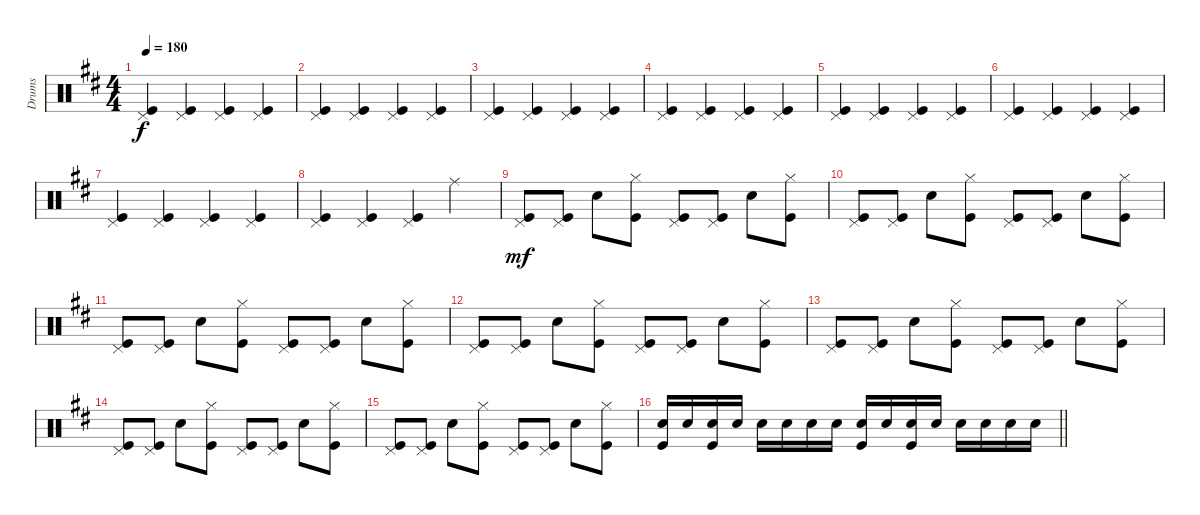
\track ("Drums" "Drums") {instrument percussion}
\staff {score}
\articulation defaults
\ts (4 4)
\tempo 180
\clef neutral
\ks d
("Kick (hit)" "Pedal Hi-Hat (hit)").4{dy f} ("Kick (hit)" "Pedal Hi-Hat (hit)").4 ("Kick (hit)" "Pedal Hi-Hat (hit)").4 ("Kick (hit)" "Pedal Hi-Hat (hit)").4 |
("Kick (hit)" "Pedal Hi-Hat (hit)").4 ("Kick (hit)" "Pedal Hi-Hat (hit)").4 ("Kick (hit)" "Pedal Hi-Hat (hit)").4 ("Kick (hit)" "Pedal Hi-Hat (hit)").4 |
("Kick (hit)" "Pedal Hi-Hat (hit)").4 ("Kick (hit)" "Pedal Hi-Hat (hit)").4 ("Kick (hit)" "Pedal Hi-Hat (hit)").4 ("Kick (hit)" "Pedal Hi-Hat (hit)").4 |
("Kick (hit)" "Pedal Hi-Hat (hit)").4 ("Kick (hit)" "Pedal Hi-Hat (hit)").4 ("Kick (hit)" "Pedal Hi-Hat (hit)").4 ("Kick (hit)" "Pedal Hi-Hat (hit)").4 |
("Kick (hit)" "Pedal Hi-Hat (hit)").4 ("Kick (hit)" "Pedal Hi-Hat (hit)").4 ("Kick (hit)" "Pedal Hi-Hat (hit)").4 ("Kick (hit)" "Pedal Hi-Hat (hit)").4 |
("Kick (hit)" "Pedal Hi-Hat (hit)").4 ("Kick (hit)" "Pedal Hi-Hat (hit)").4 ("Kick (hit)" "Pedal Hi-Hat (hit)").4 ("Kick (hit)" "Pedal Hi-Hat (hit)").4 |
("Kick (hit)" "Pedal Hi-Hat (hit)").4 ("Kick (hit)" "Pedal Hi-Hat (hit)").4 ("Kick (hit)" "Pedal Hi-Hat (hit)").4 ("Kick (hit)" "Pedal Hi-Hat (hit)").4 |
("Kick (hit)" "Pedal Hi-Hat (hit)").4 ("Kick (hit)" "Pedal Hi-Hat (hit)").4 ("Kick (hit)" "Pedal Hi-Hat (hit)").4 "Ride (middle)".4 |
("Kick (hit)" "Pedal Hi-Hat (hit)").8{dy mf} ("Kick (hit)" "Pedal Hi-Hat (hit)").8 "Snare (hit) 2".8 ("Kick (hit)" "Hi-Hat (closed)").8 ("Kick (hit)" "Pedal Hi-Hat (hit)").8 ("Kick (hit)" "Pedal Hi-Hat (hit)").8 "Snare (hit) 2".8 ("Kick (hit)" "Hi-Hat (closed)").8 |
("Kick (hit)" "Pedal Hi-Hat (hit)").8 ("Kick (hit)" "Pedal Hi-Hat (hit)").8 "Snare (hit) 2".8 ("Kick (hit)" "Hi-Hat (closed)").8 ("Kick (hit)" "Pedal Hi-Hat (hit)").8 ("Kick (hit)" "Pedal Hi-Hat (hit)").8 "Snare (hit) 2".8 ("Kick (hit)" "Hi-Hat (closed)").8 |
("Kick (hit)" "Pedal Hi-Hat (hit)").8 ("Kick (hit)" "Pedal Hi-Hat (hit)").8 "Snare (hit) 2".8 ("Kick (hit)" "Hi-Hat (closed)").8 ("Kick (hit)" "Pedal Hi-Hat (hit)").8 ("Kick (hit)" "Pedal Hi-Hat (hit)").8 "Snare (hit) 2".8 ("Kick (hit)" "Hi-Hat (closed)").8 |
("Kick (hit)" "Pedal Hi-Hat (hit)").8 ("Kick (hit)" "Pedal Hi-Hat (hit)").8 "Snare (hit) 2".8 ("Kick (hit)" "Hi-Hat (closed)").8 ("Kick (hit)" "Pedal Hi-Hat (hit)").8 ("Kick (hit)" "Pedal Hi-Hat (hit)").8 "Snare (hit) 2".8 ("Kick (hit)" "Hi-Hat (closed)").8 |
("Kick (hit)" "Pedal Hi-Hat (hit)").8 ("Kick (hit)" "Pedal Hi-Hat (hit)").8 "Snare (hit) 2".8 ("Kick (hit)" "Hi-Hat (closed)").8 ("Kick (hit)" "Pedal Hi-Hat (hit)").8 ("Kick (hit)" "Pedal Hi-Hat (hit)").8 "Snare (hit) 2".8 ("Kick (hit)" "Hi-Hat (closed)").8 |
("Kick (hit)" "Pedal Hi-Hat (hit)").8 ("Kick (hit)" "Pedal Hi-Hat (hit)").8 "Snare (hit) 2".8 ("Kick (hit)" "Hi-Hat (closed)").8 ("Kick (hit)" "Pedal Hi-Hat (hit)").8 ("Kick (hit)" "Pedal Hi-Hat (hit)").8 "Snare (hit) 2".8 ("Kick (hit)" "Hi-Hat (closed)").8 |
("Kick (hit)" "Pedal Hi-Hat (hit)").8 ("Kick (hit)" "Pedal Hi-Hat (hit)").8 "Snare (hit) 2".8 ("Kick (hit)" "Hi-Hat (closed)").8 ("Kick (hit)" "Pedal Hi-Hat (hit)").8 ("Kick (hit)" "Pedal Hi-Hat (hit)").8 "Snare (hit) 2".8 ("Kick (hit)" "Hi-Hat (closed)").8 |
\barLineRight lightlight
("Snare (hit) 2" "Kick (hit)").16 "Snare (hit) 2".16 ("Snare (hit) 2" "Kick (hit)").16 "Snare (hit) 2".16 "Snare (hit) 2".16 "Snare (hit) 2".16 "Snare (hit) 2".16 "Snare (hit) 2".16 ("Snare (hit) 2" "Kick (hit)").16 "Snare (hit) 2".16 ("Snare (hit) 2" "Kick (hit)").16 "Snare (hit) 2".16 "Snare (hit) 2".16 "Snare (hit) 2".16 "Snare (hit) 2".16 "Snare (hit) 2".16
